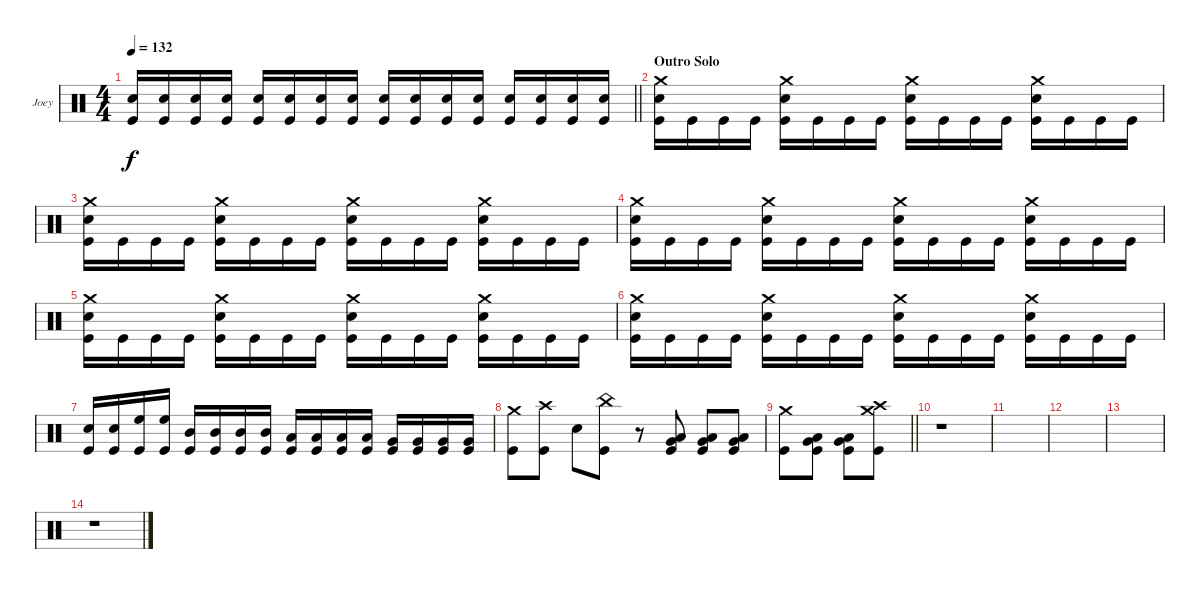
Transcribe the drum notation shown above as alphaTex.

\bracketExtendMode groupsimilarinstruments
\firstSystemTrackNameOrientation horizontal
\otherSystemsTrackNameOrientation horizontal
\track ("Joey Jordison" "Joey") {instrument percussion}
\staff {score}
\articulation defaults
\ts (4 4)
\tempo 132
\clef neutral
\barLineRight lightlight
\ks c
("Snare (hit) 2" "Kick (hit)").16{dy f} ("Snare (hit) 2" "Kick (hit)").16 ("Snare (hit) 2" "Kick (hit)").16 ("Snare (hit) 2" "Kick (hit)").16 ("Snare (hit) 2" "Kick (hit)").16 ("Snare (hit) 2" "Kick (hit)").16 ("Snare (hit) 2" "Kick (hit)").16 ("Snare (hit) 2" "Kick (hit)").16 ("Snare (hit) 2" "Kick (hit)").16 ("Snare (hit) 2" "Kick (hit)").16 ("Snare (hit) 2" "Kick (hit)").16 ("Snare (hit) 2" "Kick (hit)").16 ("Snare (hit) 2" "Kick (hit)").16 ("Snare (hit) 2" "Kick (hit)").16 ("Snare (hit) 2" "Kick (hit)").16 ("Snare (hit) 2" "Kick (hit)").16 |
\section ("" "Outro Solo")
("Crash medium (hit)" "Snare (hit) 2" "Kick (hit)").16 "Kick (hit)".16 "Kick (hit)".16 "Kick (hit)".16 ("Crash medium (hit)" "Snare (hit) 2" "Kick (hit)").16 "Kick (hit)".16 "Kick (hit)".16 "Kick (hit)".16 ("Crash medium (hit)" "Snare (hit) 2" "Kick (hit)").16 "Kick (hit)".16 "Kick (hit)".16 "Kick (hit)".16 ("Crash medium (hit)" "Snare (hit) 2" "Kick (hit)").16 "Kick (hit)".16 "Kick (hit)".16 "Kick (hit)".16 |
("Crash medium (hit)" "Snare (hit) 2" "Kick (hit)").16 "Kick (hit)".16 "Kick (hit)".16 "Kick (hit)".16 ("Crash medium (hit)" "Snare (hit) 2" "Kick (hit)").16 "Kick (hit)".16 "Kick (hit)".16 "Kick (hit)".16 ("Crash medium (hit)" "Snare (hit) 2" "Kick (hit)").16 "Kick (hit)".16 "Kick (hit)".16 "Kick (hit)".16 ("Crash medium (hit)" "Snare (hit) 2" "Kick (hit)").16 "Kick (hit)".16 "Kick (hit)".16 "Kick (hit)".16 |
("Crash medium (hit)" "Snare (hit) 2" "Kick (hit)").16 "Kick (hit)".16 "Kick (hit)".16 "Kick (hit)".16 ("Crash medium (hit)" "Snare (hit) 2" "Kick (hit)").16 "Kick (hit)".16 "Kick (hit)".16 "Kick (hit)".16 ("Crash medium (hit)" "Snare (hit) 2" "Kick (hit)").16 "Kick (hit)".16 "Kick (hit)".16 "Kick (hit)".16 ("Crash medium (hit)" "Snare (hit) 2" "Kick (hit)").16 "Kick (hit)".16 "Kick (hit)".16 "Kick (hit)".16 |
("Crash medium (hit)" "Snare (hit) 2" "Kick (hit)").16 "Kick (hit)".16 "Kick (hit)".16 "Kick (hit)".16 ("Crash medium (hit)" "Snare (hit) 2" "Kick (hit)").16 "Kick (hit)".16 "Kick (hit)".16 "Kick (hit)".16 ("Crash medium (hit)" "Snare (hit) 2" "Kick (hit)").16 "Kick (hit)".16 "Kick (hit)".16 "Kick (hit)".16 ("Crash medium (hit)" "Snare (hit) 2" "Kick (hit)").16 "Kick (hit)".16 "Kick (hit)".16 "Kick (hit)".16 |
("Crash medium (hit)" "Snare (hit) 2" "Kick (hit)").16 "Kick (hit)".16 "Kick (hit)".16 "Kick (hit)".16 ("Crash medium (hit)" "Snare (hit) 2" "Kick (hit)").16 "Kick (hit)".16 "Kick (hit)".16 "Kick (hit)".16 ("Crash medium (hit)" "Snare (hit) 2" "Kick (hit)").16 "Kick (hit)".16 "Kick (hit)".16 "Kick (hit)".16 ("Crash medium (hit)" "Snare (hit) 2" "Kick (hit)").16 "Kick (hit)".16 "Kick (hit)".16 "Kick (hit)".16 |
("Snare (hit) 2" "Kick (hit)").16 ("Snare (hit) 2" "Kick (hit)").16 ("High Floor Tom (hit)" "Kick (hit)").16 ("High Floor Tom (hit)" "Kick (hit)").16 ("Mid Tom (hit)" "Kick (hit)").16 ("Mid Tom (hit)" "Kick (hit)").16 ("Mid Tom (hit)" "Kick (hit)").16 ("Mid Tom (hit)" "Kick (hit)").16 ("Low Tom (hit)" "Kick (hit)").16 ("Low Tom (hit)" "Kick (hit)").16 ("Low Tom (hit)" "Kick (hit)").16 ("Low Tom (hit)" "Kick (hit)").16 ("Very Low Tom (hit)" "Kick (hit)").16 ("Very Low Tom (hit)" "Kick (hit)").16 ("Very Low Tom (hit)" "Kick (hit)").16 ("Very Low Tom (hit)" "Kick (hit)").16 |
("Kick (hit)" "Crash medium (hit)").8 ("Kick (hit)" "Crash high (hit)").8 "Snare (hit) 2".8 ("China (hit)" "Kick (hit)").8 r.8 ("Very Low Tom (hit)" "Kick (hit)" "Low Tom (hit)").8 ("Very Low Tom (hit)" "Kick (hit)" "Low Tom (hit)").8 ("Very Low Tom (hit)" "Kick (hit)" "Low Tom (hit)").8 |
\barLineRight lightlight
("Kick (hit)" "Crash medium (hit)").8 ("Very Low Tom (hit)" "Kick (hit)" "Low Tom (hit)").8 ("Very Low Tom (hit)" "Kick (hit)" "Low Tom (hit)").8 ("Crash high (hit)" "Crash medium (hit)" "Kick (hit)").8 |
r.1 |
|
|
|
r.1
